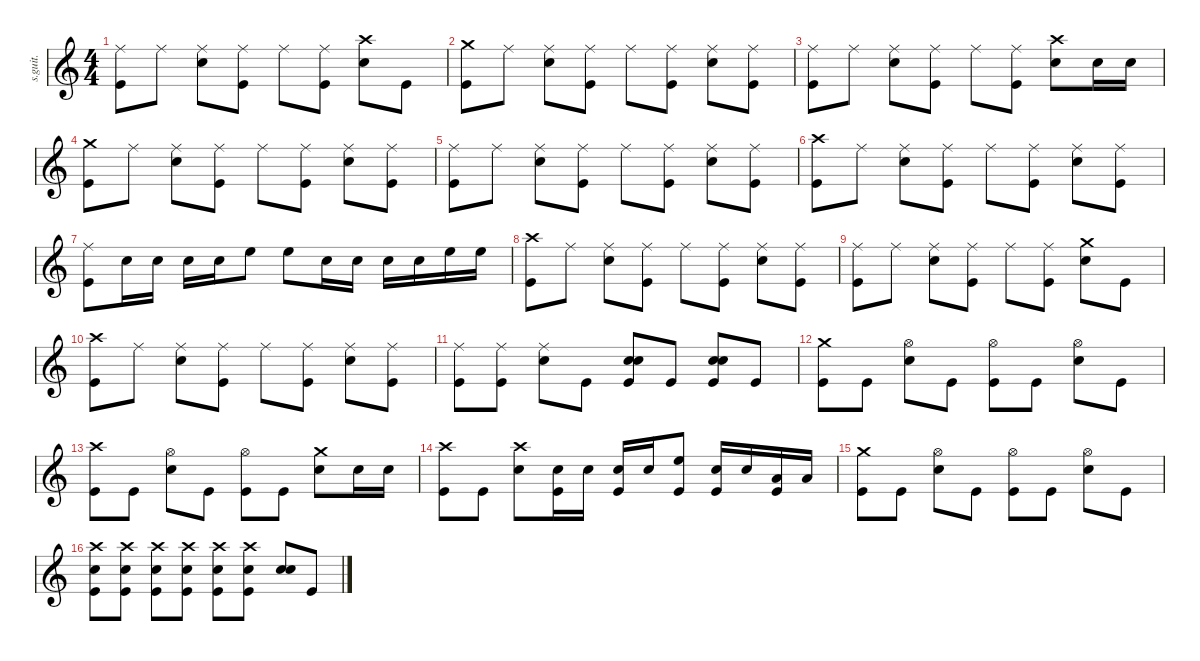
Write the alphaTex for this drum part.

\defaultSystemsLayout 4
\hideDynamics
\bracketExtendMode nobrackets
\track ("Dave Grohl" "s.guit.") {instrument percussion}
\staff {score}
\articulation defaults
\ts (4 4)
\tempo (136 hide)
\clef g2
\ks c
("Ride (middle)" "Kick (hit)").8{dy f} "Ride (middle)".8{dy ppp} ("Ride (middle)" "Snare (hit) 2").8{dy f} ("Ride (middle)" "Kick (hit)").8 "Ride (middle)".8 ("Ride (middle)" "Kick (hit)").8 ("Crash high (hit)" "Snare (hit) 2").8 "Kick (hit)".8 |
("Crash medium (hit)" "Kick (hit)").8 "Ride (middle)".8{dy ppp} ("Ride (middle)" "Snare (hit) 2").8{dy f} ("Ride (middle)" "Kick (hit)").8 "Ride (middle)".8 ("Ride (middle)" "Kick (hit)").8 ("Ride (middle)" "Snare (hit) 2").8 ("Ride (middle)" "Kick (hit)").8 |
("Ride (middle)" "Kick (hit)").8 "Ride (middle)".8{dy ppp} ("Ride (middle)" "Snare (hit) 2").8{dy f} ("Ride (middle)" "Kick (hit)").8 "Ride (middle)".8 ("Ride (middle)" "Kick (hit)").8 ("Crash high (hit)" "Snare (hit) 2").8 "Snare (hit) 2".16 "Snare (hit) 2".16 |
("Crash medium (hit)" "Kick (hit)").8 "Ride (middle)".8{dy ppp} ("Ride (middle)" "Snare (hit) 2").8{dy f} ("Ride (middle)" "Kick (hit)").8 "Ride (middle)".8 ("Ride (middle)" "Kick (hit)").8 ("Ride (middle)" "Snare (hit) 2").8 ("Ride (middle)" "Kick (hit)").8 |
("Ride (middle)" "Kick (hit)").8 "Ride (middle)".8{dy ppp} ("Ride (middle)" "Snare (hit) 2").8{dy f} ("Ride (middle)" "Kick (hit)").8 "Ride (middle)".8 ("Ride (middle)" "Kick (hit)").8 ("Ride (middle)" "Snare (hit) 2").8 ("Ride (middle)" "Kick (hit)").8 |
("Crash high (hit)" "Kick (hit)").8 "Ride (middle)".8{dy ppp} ("Ride (middle)" "Snare (hit) 2").8{dy f} ("Ride (middle)" "Kick (hit)").8 "Ride (middle)".8 ("Ride (middle)" "Kick (hit)").8 ("Ride (middle)" "Snare (hit) 2").8 ("Ride (middle)" "Kick (hit)").8 |
("Ride (middle)" "Kick (hit)").8 "Snare (hit) 2".16 "Snare (hit) 2".16 "Snare (hit) 2".16 "Snare (hit) 2".16 "High Floor Tom (hit)".8{dy ff} "High Floor Tom (hit)".8 "Snare (hit) 2".16{dy f} "Snare (hit) 2".16 "Snare (hit) 2".16 "Snare (hit) 2".16 "High Floor Tom (hit)".16{dy ff} "High Floor Tom (hit)".16 |
("Crash high (hit)" "Kick (hit)").8{dy f} "Ride (middle)".8{dy ppp} ("Ride (middle)" "Snare (hit) 2").8{dy f} ("Ride (middle)" "Kick (hit)").8 "Ride (middle)".8 ("Ride (middle)" "Kick (hit)").8 ("Ride (middle)" "Snare (hit) 2").8 ("Ride (middle)" "Kick (hit)").8 |
("Ride (middle)" "Kick (hit)").8 "Ride (middle)".8{dy ppp} ("Ride (middle)" "Snare (hit) 2").8{dy f} ("Ride (middle)" "Kick (hit)").8 "Ride (middle)".8 ("Ride (middle)" "Kick (hit)").8 ("Crash medium (hit)" "Snare (hit) 2").8 "Kick (hit)".8 |
("Crash high (hit)" "Kick (hit)").8 "Ride (middle)".8{dy ppp} ("Ride (middle)" "Snare (hit) 2").8{dy f} ("Ride (middle)" "Kick (hit)").8 "Ride (middle)".8 ("Ride (middle)" "Kick (hit)").8 ("Ride (middle)" "Snare (hit) 2").8 ("Ride (middle)" "Kick (hit)").8 |
("Ride (middle)" "Kick (hit)").8 ("Ride (middle)" "Kick (hit)").8 ("Ride (middle)" "Snare (hit) 2").8 "Kick (hit)".8 ("Snare (hit) 2" "Snare (hit) 2" "Kick (hit)").8{bd 30} "Kick (hit)".8 ("Snare (hit) 2" "Snare (hit) 2" "Kick (hit)").8{bd 30} "Kick (hit)".8 |
("Crash medium (hit)" "Kick (hit)").8 "Kick (hit)".8 ("Hi-Hat (open)" "Snare (hit) 2").8 "Kick (hit)".8 ("Hi-Hat (open)" "Kick (hit)").8 "Kick (hit)".8 ("Hi-Hat (open)" "Snare (hit) 2").8 "Kick (hit)".8 |
("Crash high (hit)" "Kick (hit)").8 "Kick (hit)".8 ("Hi-Hat (open)" "Snare (hit) 2").8 "Kick (hit)".8 ("Hi-Hat (open)" "Kick (hit)").8 "Kick (hit)".8 ("Crash medium (hit)" "Snare (hit) 2").8 "Snare (hit) 2".16 "Snare (hit) 2".16 |
("Crash high (hit)" "Kick (hit)").8 "Kick (hit)".8 ("Crash high (hit)" "Snare (hit) 2").8 ("Snare (hit) 2" "Kick (hit)").16 "Snare (hit) 2".16 ("Snare (hit) 2" "Kick (hit)").16 "Snare (hit) 2".16 ("High Floor Tom (hit)" "Kick (hit)").8 ("Snare (hit) 2" "Kick (hit)").16 "Snare (hit) 2".16 ("Low Floor Tom (hit)" "Kick (hit)").16 "Low Floor Tom (hit)".16{dy ff} |
("Crash medium (hit)" "Kick (hit)").8{dy f} "Kick (hit)".8 ("Hi-Hat (open)" "Snare (hit) 2").8 "Kick (hit)".8 ("Hi-Hat (open)" "Kick (hit)").8 "Kick (hit)".8 ("Hi-Hat (open)" "Snare (hit) 2").8 "Kick (hit)".8 |
("Crash high (hit)" "Snare (hit) 2" "Kick (hit)").8 ("Crash high (hit)" "Snare (hit) 2" "Kick (hit)").8{dy pp} ("Crash high (hit)" "Snare (hit) 2" "Kick (hit)").8{dy p} ("Crash high (hit)" "Snare (hit) 2" "Kick (hit)").8{dy mp} ("Crash high (hit)" "Snare (hit) 2" "Kick (hit)").8{dy mf} ("Crash high (hit)" "Snare (hit) 2" "Kick (hit)").8{dy f} ("Snare (hit) 2" "Snare (hit) 2").8{bd 30} "Kick (hit)".8
